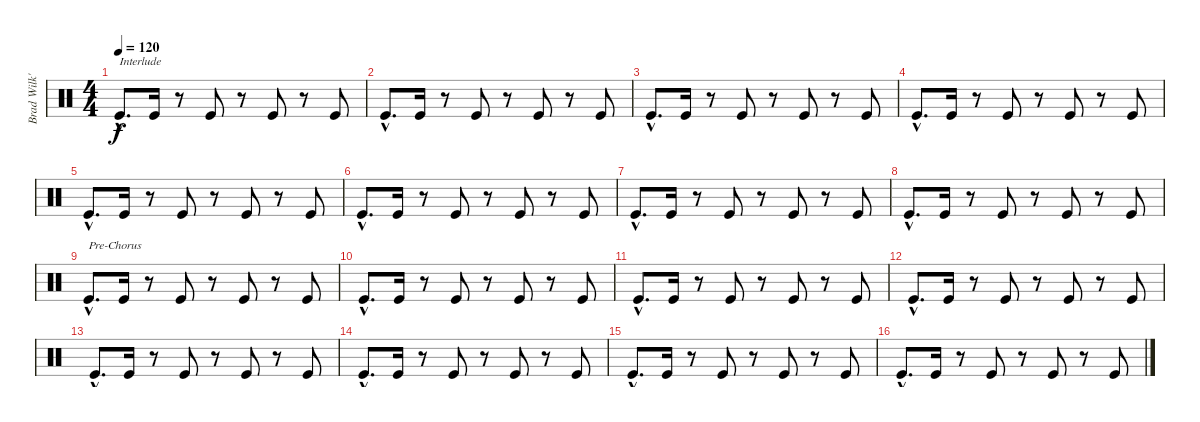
\track ("Brad Wilk's Bass Drum" "Brad Wilk'") {instrument percussion}
\staff {score}
\articulation defaults
\ts (4 4)
\tempo 120
\clef neutral
\ks c "Kick (hit)"{hac}.8{d txt "Interlude" dy f} "Kick (hit)".16
r.8 "Kick (hit)".8 r.8 "Kick (hit)".8 r.8 "Kick (hit)".8 |
"Kick (hit)"{hac}.8{d} "Kick (hit)".16 r.8 "Kick (hit)".8 r.8 "Kick (hit)".8 r.8 "Kick (hit)".8 |
"Kick (hit)"{hac}.8{d} "Kick (hit)".16 r.8 "Kick (hit)".8 r.8 "Kick (hit)".8 r.8 "Kick (hit)".8 |
"Kick (hit)"{hac}.8{d} "Kick (hit)".16 r.8 "Kick (hit)".8 r.8 "Kick (hit)".8 r.8 "Kick (hit)".8 |
"Kick (hit)"{hac}.8{d} "Kick (hit)".16 r.8 "Kick (hit)".8 r.8 "Kick (hit)".8 r.8 "Kick (hit)".8 |
"Kick (hit)"{hac}.8{d} "Kick (hit)".16 r.8 "Kick (hit)".8 r.8 "Kick (hit)".8 r.8 "Kick (hit)".8 |
"Kick (hit)"{hac}.8{d} "Kick (hit)".16 r.8 "Kick (hit)".8 r.8 "Kick (hit)".8 r.8 "Kick (hit)".8 |
"Kick (hit)"{hac}.8{d} "Kick (hit)".16 r.8 "Kick (hit)".8 r.8 "Kick (hit)".8 r.8 "Kick (hit)".8 |
"Kick (hit)"{hac}.8{d txt "Pre-Chorus"} "Kick (hit)".16 r.8 "Kick (hit)".8 r.8 "Kick (hit)".8 r.8 "Kick (hit)".8 |
"Kick (hit)"{hac}.8{d} "Kick (hit)".16 r.8 "Kick (hit)".8 r.8 "Kick (hit)".8 r.8 "Kick (hit)".8 |
"Kick (hit)"{hac}.8{d} "Kick (hit)".16 r.8 "Kick (hit)".8 r.8 "Kick (hit)".8 r.8 "Kick (hit)".8 |
"Kick (hit)"{hac}.8{d} "Kick (hit)".16 r.8 "Kick (hit)".8 r.8 "Kick (hit)".8 r.8 "Kick (hit)".8 |
"Kick (hit)"{hac}.8{d} "Kick (hit)".16 r.8 "Kick (hit)".8 r.8 "Kick (hit)".8 r.8 "Kick (hit)".8 |
"Kick (hit)"{hac}.8{d} "Kick (hit)".16 r.8 "Kick (hit)".8 r.8 "Kick (hit)".8 r.8 "Kick (hit)".8 |
"Kick (hit)"{hac}.8{d} "Kick (hit)".16 r.8 "Kick (hit)".8 r.8 "Kick (hit)".8 r.8 "Kick (hit)".8 |
"Kick (hit)"{hac}.8{d} "Kick (hit)".16 r.8 "Kick (hit)".8 r.8 "Kick (hit)".8 r.8 "Kick (hit)".8
